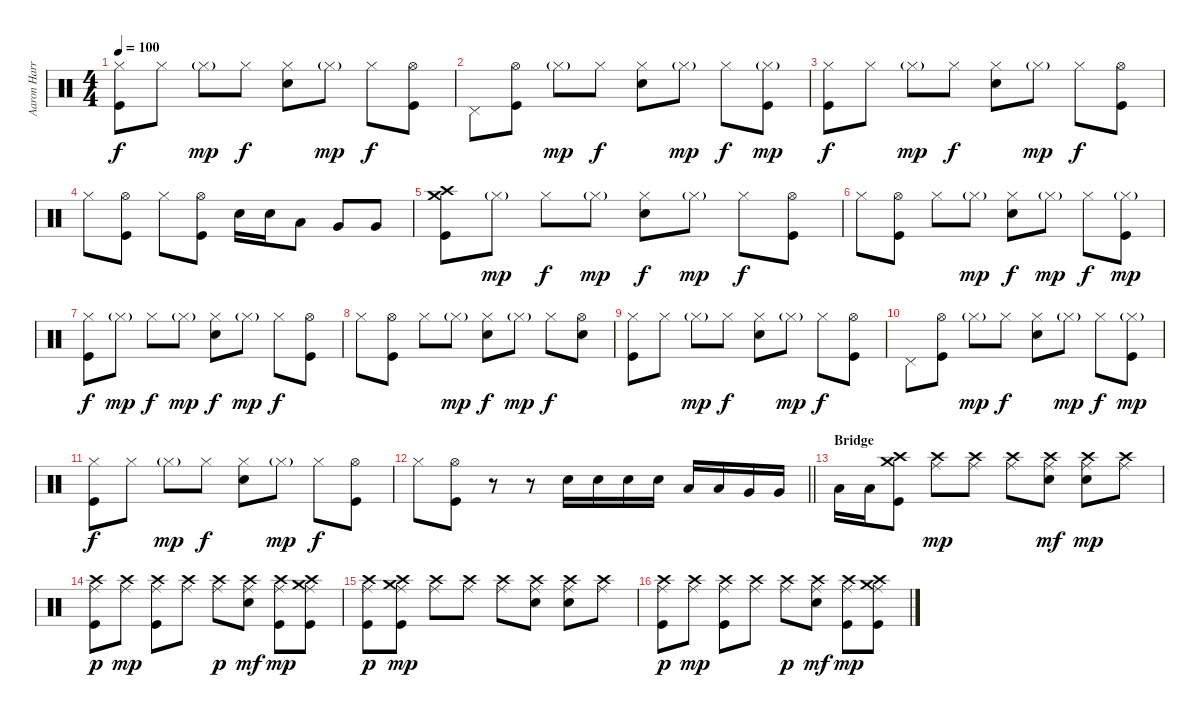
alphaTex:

\track ("Aaron Harris" "Aaron Harr") {instrument percussion}
\staff {score}
\articulation defaults
\ts (4 4)
\tempo 100
\clef neutral
\ks c
("Hi-Hat (closed)" "Kick (hit)").8{dy f} "Hi-Hat (closed)".8 "Hi-Hat (closed)"{g}.8{dy mp} "Hi-Hat (closed)".8{dy f} ("Hi-Hat (closed)" "Electric Snare (hit)").8 "Hi-Hat (closed)"{g}.8{dy mp} "Hi-Hat (closed)".8{dy f} ("Hi-Hat (open)" "Kick (hit)").8 |
"Pedal Hi-Hat (hit)".8 ("Hi-Hat (open)" "Kick (hit)").8 "Hi-Hat (closed)"{g}.8{dy mp} "Hi-Hat (closed)".8{dy f} ("Hi-Hat (closed)" "Electric Snare (hit)").8 "Hi-Hat (closed)"{g}.8{dy mp} "Hi-Hat (closed)".8{dy f} ("Hi-Hat (closed)"{g} "Kick (hit)").8{dy mp} |
("Hi-Hat (closed)" "Kick (hit)").8{dy f} "Hi-Hat (closed)".8 "Hi-Hat (closed)"{g}.8{dy mp} "Hi-Hat (closed)".8{dy f} ("Hi-Hat (closed)" "Electric Snare (hit)").8 "Hi-Hat (closed)"{g}.8{dy mp} "Hi-Hat (closed)".8{dy f} ("Hi-Hat (open)" "Kick (hit)").8 |
"Hi-Hat (closed)".8 ("Hi-Hat (open)" "Kick (hit)").8 "Hi-Hat (closed)".8 ("Hi-Hat (open)" "Kick (hit)").8 "Electric Snare (hit)".16 "Electric Snare (hit)".16 "Low Tom (hit)".8 "Very Low Tom (hit)".8 "Very Low Tom (hit)".8 |
("Crash medium (hit)" "Crash high (hit)" "Kick (hit)").8 "Hi-Hat (closed)"{g}.8{dy mp} "Hi-Hat (closed)".8{dy f} "Hi-Hat (closed)"{g}.8{dy mp} ("Hi-Hat (closed)" "Electric Snare (hit)").8{dy f} "Hi-Hat (closed)"{g}.8{dy mp} "Hi-Hat (closed)".8{dy f} ("Hi-Hat (open)" "Kick (hit)").8 |
"Hi-Hat (closed)".8 ("Hi-Hat (open)" "Kick (hit)").8 "Hi-Hat (closed)".8 "Hi-Hat (closed)"{g}.8{dy mp} ("Hi-Hat (closed)" "Electric Snare (hit)").8{dy f} "Hi-Hat (closed)"{g}.8{dy mp} "Hi-Hat (closed)".8{dy f} ("Hi-Hat (closed)"{g} "Kick (hit)").8{dy mp} |
("Hi-Hat (closed)" "Kick (hit)").8{dy f} "Hi-Hat (closed)"{g}.8{dy mp} "Hi-Hat (closed)".8{dy f} "Hi-Hat (closed)"{g}.8{dy mp} ("Hi-Hat (closed)" "Electric Snare (hit)").8{dy f} "Hi-Hat (closed)"{g}.8{dy mp} "Hi-Hat (closed)".8{dy f} ("Hi-Hat (open)" "Kick (hit)").8 |
"Hi-Hat (closed)".8 ("Hi-Hat (open)" "Kick (hit)").8 "Hi-Hat (closed)".8 "Hi-Hat (closed)"{g}.8{dy mp} ("Hi-Hat (closed)" "Electric Snare (hit)").8{dy f} "Hi-Hat (closed)"{g}.8{dy mp} "Hi-Hat (closed)".8{dy f} ("Hi-Hat (open)" "Electric Snare (hit)").8 |
("Hi-Hat (closed)" "Kick (hit)").8 "Hi-Hat (closed)".8 "Hi-Hat (closed)"{g}.8{dy mp} "Hi-Hat (closed)".8{dy f} ("Hi-Hat (closed)" "Electric Snare (hit)").8 "Hi-Hat (closed)"{g}.8{dy mp} "Hi-Hat (closed)".8{dy f} ("Hi-Hat (open)" "Kick (hit)").8 |
"Pedal Hi-Hat (hit)".8 ("Hi-Hat (open)" "Kick (hit)").8 "Hi-Hat (closed)"{g}.8{dy mp} "Hi-Hat (closed)".8{dy f} ("Hi-Hat (closed)" "Electric Snare (hit)").8 "Hi-Hat (closed)"{g}.8{dy mp} "Hi-Hat (closed)".8{dy f} ("Hi-Hat (closed)"{g} "Kick (hit)").8{dy mp} |
("Hi-Hat (closed)" "Kick (hit)").8{dy f} "Hi-Hat (closed)".8 "Hi-Hat (closed)"{g}.8{dy mp} "Hi-Hat (closed)".8{dy f} ("Hi-Hat (closed)" "Electric Snare (hit)").8 "Hi-Hat (closed)"{g}.8{dy mp} "Hi-Hat (closed)".8{dy f} ("Hi-Hat (open)" "Kick (hit)").8 |
\barLineRight lightlight "Hi-Hat (closed)".8
("Hi-Hat (open)" "Kick (hit)").8 r.8 r.8 "Electric Snare (hit)".16 "Electric Snare (hit)".16 "Electric Snare (hit)".16 "Electric Snare (hit)".16 "Low Tom (hit)".16 "Low Tom (hit)".16 "Very Low Tom (hit)".16 "Very Low Tom (hit)".16 |
\section ("" "Bridge")
"Low Floor Tom (hit)".16 "Low Floor Tom (hit)".16 ("Crash medium (hit)" "Crash high (hit)" "Kick (hit)").8 ("Crash high (hit)" "Ride (middle)").8{dy mp} ("Crash high (hit)" "Ride (middle)").8 ("Crash high (hit)" "Ride (middle)").8 ("Crash high (hit)" "Ride (middle)" "Electric Snare (hit)").8{dy mf} ("Crash high (hit)" "Ride (middle)" "Electric Snare (hit)").8{dy mp} ("Crash high (hit)" "Ride (middle)").8 |
("Crash high (hit)" "Ride (middle)" "Kick (hit)").8{dy p} ("Crash high (hit)" "Ride (middle)").8{dy mp} ("Crash high (hit)" "Ride (middle)" "Kick (hit)").8 ("Crash high (hit)" "Ride (middle)").8 ("Crash high (hit)" "Ride (middle)").8{dy p} ("Crash high (hit)" "Ride (middle)" "Electric Snare (hit)").8{dy mf} ("Crash high (hit)" "Ride (middle)" "Kick (hit)").8{dy mp} ("Crash medium (hit)" "Crash high (hit)" "Ride (middle)" "Kick (hit)").8 |
("Crash high (hit)" "Ride (middle)" "Kick (hit)").8{dy p} ("Crash medium (hit)" "Crash high (hit)" "Ride (middle)" "Kick (hit)").8{dy mp} ("Crash high (hit)" "Ride (middle)").8 ("Crash high (hit)" "Ride (middle)").8 ("Crash high (hit)" "Ride (middle)").8 ("Crash high (hit)" "Ride (middle)" "Electric Snare (hit)").8 ("Crash high (hit)" "Ride (middle)" "Electric Snare (hit)").8 ("Crash high (hit)" "Ride (middle)").8 |
("Crash high (hit)" "Ride (middle)" "Kick (hit)").8{dy p} ("Crash high (hit)" "Ride (middle)").8{dy mp} ("Crash high (hit)" "Ride (middle)" "Kick (hit)").8 ("Crash high (hit)" "Ride (middle)").8 ("Crash high (hit)" "Ride (middle)").8{dy p} ("Crash high (hit)" "Ride (middle)" "Electric Snare (hit)").8{dy mf} ("Crash high (hit)" "Ride (middle)" "Kick (hit)").8{dy mp} ("Crash medium (hit)" "Crash high (hit)" "Ride (middle)" "Kick (hit)").8
